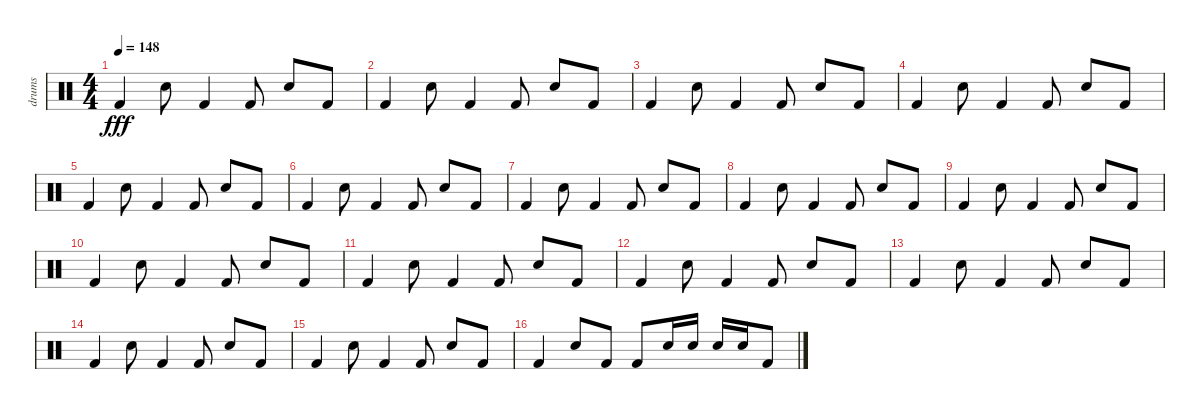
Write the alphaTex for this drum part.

\track ("drums" "drums") {instrument percussion}
\staff {score}
\articulation defaults
\ts (4 4)
\tempo 148
\clef neutral
\ks c "Kick (hit) 2".4{dy fff} "Electric Snare (hit)".8 "Kick (hit) 2".4 "Kick (hit) 2".8 "Electric Snare (hit)".8 "Kick (hit) 2".8
|
"Kick (hit) 2".4 "Electric Snare (hit)".8 "Kick (hit) 2".4 "Kick (hit) 2".8 "Electric Snare (hit)".8 "Kick (hit) 2".8 |
"Kick (hit) 2".4 "Electric Snare (hit)".8 "Kick (hit) 2".4 "Kick (hit) 2".8 "Electric Snare (hit)".8 "Kick (hit) 2".8 |
"Kick (hit) 2".4 "Electric Snare (hit)".8 "Kick (hit) 2".4 "Kick (hit) 2".8 "Electric Snare (hit)".8 "Kick (hit) 2".8 |
"Kick (hit) 2".4 "Electric Snare (hit)".8 "Kick (hit) 2".4 "Kick (hit) 2".8 "Electric Snare (hit)".8 "Kick (hit) 2".8 |
"Kick (hit) 2".4 "Electric Snare (hit)".8 "Kick (hit) 2".4 "Kick (hit) 2".8 "Electric Snare (hit)".8 "Kick (hit) 2".8 |
"Kick (hit) 2".4 "Electric Snare (hit)".8 "Kick (hit) 2".4 "Kick (hit) 2".8 "Electric Snare (hit)".8 "Kick (hit) 2".8 |
"Kick (hit) 2".4 "Electric Snare (hit)".8 "Kick (hit) 2".4 "Kick (hit) 2".8 "Electric Snare (hit)".8 "Kick (hit) 2".8 |
"Kick (hit) 2".4 "Electric Snare (hit)".8 "Kick (hit) 2".4 "Kick (hit) 2".8 "Electric Snare (hit)".8 "Kick (hit) 2".8 |
"Kick (hit) 2".4 "Electric Snare (hit)".8 "Kick (hit) 2".4 "Kick (hit) 2".8 "Electric Snare (hit)".8 "Kick (hit) 2".8 |
"Kick (hit) 2".4 "Electric Snare (hit)".8 "Kick (hit) 2".4 "Kick (hit) 2".8 "Electric Snare (hit)".8 "Kick (hit) 2".8 |
"Kick (hit) 2".4 "Electric Snare (hit)".8 "Kick (hit) 2".4 "Kick (hit) 2".8 "Electric Snare (hit)".8 "Kick (hit) 2".8 |
"Kick (hit) 2".4 "Electric Snare (hit)".8 "Kick (hit) 2".4 "Kick (hit) 2".8 "Electric Snare (hit)".8 "Kick (hit) 2".8 |
"Kick (hit) 2".4 "Electric Snare (hit)".8 "Kick (hit) 2".4 "Kick (hit) 2".8 "Electric Snare (hit)".8 "Kick (hit) 2".8 |
"Kick (hit) 2".4 "Electric Snare (hit)".8 "Kick (hit) 2".4 "Kick (hit) 2".8 "Electric Snare (hit)".8 "Kick (hit) 2".8 |
"Kick (hit) 2".4 "Electric Snare (hit)".8 "Kick (hit) 2".8 "Kick (hit) 2".8 "Electric Snare (hit)".16 "Electric Snare (hit)".16 "Electric Snare (hit)".16 "Electric Snare (hit)".16 "Kick (hit) 2".8
